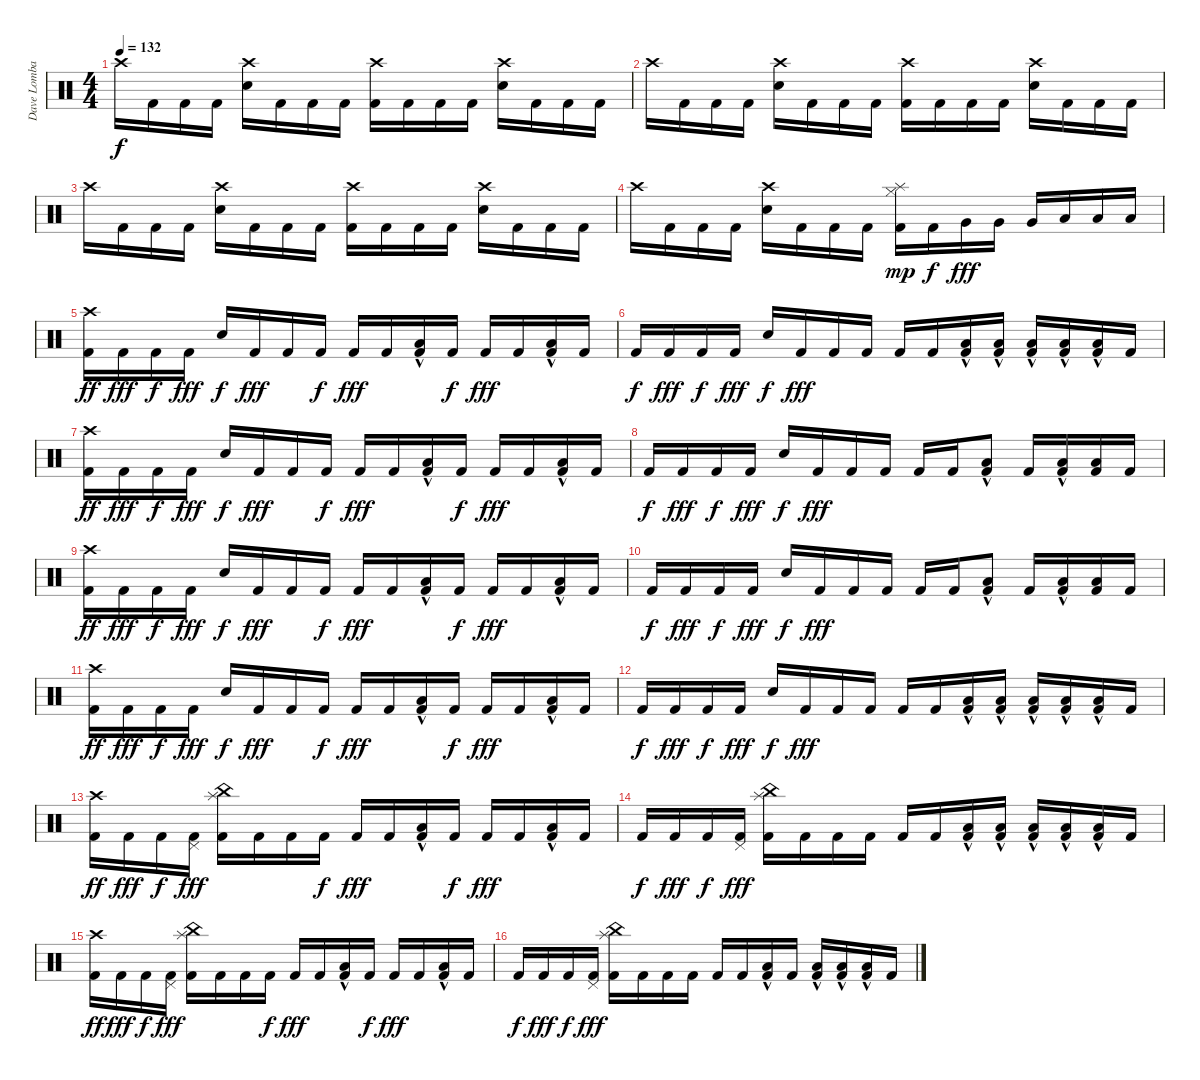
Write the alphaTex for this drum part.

\track ("Dave Lombardo" "Dave Lomba") {instrument percussion}
\staff {score}
\articulation defaults
\ts (4 4)
\tempo 132
\clef neutral
\ks c "Crash high (hit)".16{dy f} "Kick (hit) 2".16 "Kick (hit) 2".16 "Kick (hit) 2".16
("Crash high (hit)" "Snare (hit) 2").16 "Kick (hit) 2".16 "Kick (hit) 2".16 "Kick (hit) 2".16 ("Crash high (hit)" "Kick (hit) 2").16 "Kick (hit) 2".16 "Kick (hit) 2".16 "Kick (hit) 2".16 ("Crash high (hit)" "Snare (hit) 2").16 "Kick (hit) 2".16 "Kick (hit) 2".16 "Kick (hit) 2".16 |
"Crash high (hit)".16 "Kick (hit) 2".16 "Kick (hit) 2".16 "Kick (hit) 2".16 ("Crash high (hit)" "Snare (hit) 2").16 "Kick (hit) 2".16 "Kick (hit) 2".16 "Kick (hit) 2".16 ("Crash high (hit)" "Kick (hit) 2").16 "Kick (hit) 2".16 "Kick (hit) 2".16 "Kick (hit) 2".16 ("Crash high (hit)" "Snare (hit) 2").16 "Kick (hit) 2".16 "Kick (hit) 2".16 "Kick (hit) 2".16 |
"Crash high (hit)".16 "Kick (hit) 2".16 "Kick (hit) 2".16 "Kick (hit) 2".16 ("Crash high (hit)" "Snare (hit) 2").16 "Kick (hit) 2".16 "Kick (hit) 2".16 "Kick (hit) 2".16 ("Crash high (hit)" "Kick (hit) 2").16 "Kick (hit) 2".16 "Kick (hit) 2".16 "Kick (hit) 2".16 ("Crash high (hit)" "Snare (hit) 2").16 "Kick (hit) 2".16 "Kick (hit) 2".16 "Kick (hit) 2".16 |
"Crash high (hit)".16 "Kick (hit) 2".16 "Kick (hit) 2".16 "Kick (hit) 2".16 ("Crash high (hit)" "Snare (hit) 2").16 "Kick (hit) 2".16 "Kick (hit) 2".16 "Kick (hit) 2".16 ("Splash (hit)" "Hi-Hat (closed)" "Kick (hit) 2").16{dy mp} "Kick (hit) 2".16{dy f} "Very Low Tom (hit)".16{dy fff} "Very Low Tom (hit)".16 "Very Low Tom (hit)".16 "Low Floor Tom (hit)".16 "Low Floor Tom (hit)".16 "Low Floor Tom (hit)".16 |
("Crash high (hit)" "Kick (hit) 2").16{dy ff} "Kick (hit) 2".16{dy fff} "Kick (hit) 2".16{dy f} "Kick (hit) 2".16{dy fff} "Snare (hit) 2".16{dy f} "Kick (hit) 2".16{dy fff} "Kick (hit) 2".16 "Kick (hit) 2".16{dy f} "Kick (hit) 2".16{dy fff} "Kick (hit) 2".16 ("Low Floor Tom (hit)"{hac} "Kick (hit) 2").16 "Kick (hit) 2".16{dy f} "Kick (hit) 2".16{dy fff} "Kick (hit) 2".16 ("Low Floor Tom (hit)"{hac} "Kick (hit) 2").16 "Kick (hit) 2".16 |
"Kick (hit) 2".16{dy f} "Kick (hit) 2".16{dy fff} "Kick (hit) 2".16{dy f} "Kick (hit) 2".16{dy fff} "Snare (hit) 2".16{dy f} "Kick (hit) 2".16{dy fff} "Kick (hit) 2".16 "Kick (hit) 2".16 "Kick (hit) 2".16 "Kick (hit) 2".16 ("Low Floor Tom (hit)"{hac} "Kick (hit) 2").16 ("Low Floor Tom (hit)"{hac} "Kick (hit) 2").16 ("Low Floor Tom (hit)"{hac} "Kick (hit) 2").16 ("Low Floor Tom (hit)"{hac} "Kick (hit) 2").16 ("Low Floor Tom (hit)"{hac} "Kick (hit) 2").16 "Kick (hit) 2".16 |
("Crash high (hit)" "Kick (hit) 2").16{dy ff} "Kick (hit) 2".16{dy fff} "Kick (hit) 2".16{dy f} "Kick (hit) 2".16{dy fff} "Snare (hit) 2".16{dy f} "Kick (hit) 2".16{dy fff} "Kick (hit) 2".16 "Kick (hit) 2".16{dy f} "Kick (hit) 2".16{dy fff} "Kick (hit) 2".16 ("Low Floor Tom (hit)"{hac} "Kick (hit) 2").16 "Kick (hit) 2".16{dy f} "Kick (hit) 2".16{dy fff} "Kick (hit) 2".16 ("Low Floor Tom (hit)"{hac} "Kick (hit) 2").16 "Kick (hit) 2".16 |
"Kick (hit) 2".16{dy f} "Kick (hit) 2".16{dy fff} "Kick (hit) 2".16{dy f} "Kick (hit) 2".16{dy fff} "Snare (hit) 2".16{dy f} "Kick (hit) 2".16{dy fff} "Kick (hit) 2".16 "Kick (hit) 2".16 "Kick (hit) 2".16 "Kick (hit) 2".16 ("Low Floor Tom (hit)"{hac} "Kick (hit) 2").8 "Kick (hit) 2".16 ("Low Floor Tom (hit)"{hac} "Kick (hit) 2").16 ("Low Floor Tom (hit)" "Kick (hit) 2").16 "Kick (hit) 2".16 |
("Crash high (hit)" "Kick (hit) 2").16{dy ff} "Kick (hit) 2".16{dy fff} "Kick (hit) 2".16{dy f} "Kick (hit) 2".16{dy fff} "Snare (hit) 2".16{dy f} "Kick (hit) 2".16{dy fff} "Kick (hit) 2".16 "Kick (hit) 2".16{dy f} "Kick (hit) 2".16{dy fff} "Kick (hit) 2".16 ("Low Floor Tom (hit)"{hac} "Kick (hit) 2").16 "Kick (hit) 2".16{dy f} "Kick (hit) 2".16{dy fff} "Kick (hit) 2".16 ("Low Floor Tom (hit)"{hac} "Kick (hit) 2").16 "Kick (hit) 2".16 |
"Kick (hit) 2".16{dy f} "Kick (hit) 2".16{dy fff} "Kick (hit) 2".16{dy f} "Kick (hit) 2".16{dy fff} "Snare (hit) 2".16{dy f} "Kick (hit) 2".16{dy fff} "Kick (hit) 2".16 "Kick (hit) 2".16 "Kick (hit) 2".16 "Kick (hit) 2".16 ("Low Floor Tom (hit)"{hac} "Kick (hit) 2").8 "Kick (hit) 2".16 ("Low Floor Tom (hit)"{hac} "Kick (hit) 2").16 ("Low Floor Tom (hit)" "Kick (hit) 2").16 "Kick (hit) 2".16 |
("Crash high (hit)" "Kick (hit) 2").16{dy ff} "Kick (hit) 2".16{dy fff} "Kick (hit) 2".16{dy f} "Kick (hit) 2".16{dy fff} "Snare (hit) 2".16{dy f} "Kick (hit) 2".16{dy fff} "Kick (hit) 2".16 "Kick (hit) 2".16{dy f} "Kick (hit) 2".16{dy fff} "Kick (hit) 2".16 ("Low Floor Tom (hit)"{hac} "Kick (hit) 2").16 "Kick (hit) 2".16{dy f} "Kick (hit) 2".16{dy fff} "Kick (hit) 2".16 ("Low Floor Tom (hit)"{hac} "Kick (hit) 2").16 "Kick (hit) 2".16 |
"Kick (hit) 2".16{dy f} "Kick (hit) 2".16{dy fff} "Kick (hit) 2".16{dy f} "Kick (hit) 2".16{dy fff} "Snare (hit) 2".16{dy f} "Kick (hit) 2".16{dy fff} "Kick (hit) 2".16 "Kick (hit) 2".16 "Kick (hit) 2".16 "Kick (hit) 2".16 ("Low Floor Tom (hit)"{hac} "Kick (hit) 2").16 ("Low Floor Tom (hit)"{hac} "Kick (hit) 2").16 ("Low Floor Tom (hit)"{hac} "Kick (hit) 2").16 ("Low Floor Tom (hit)"{hac} "Kick (hit) 2").16 ("Low Floor Tom (hit)"{hac} "Kick (hit) 2").16 "Kick (hit) 2".16 |
("Crash high (hit)" "Kick (hit) 2").16{dy ff} "Kick (hit) 2".16{dy fff} "Kick (hit) 2".16{dy f} ("Pedal Hi-Hat (hit)" "Kick (hit) 2").16{dy fff} ("Splash (hit)" "China (hit)" "Kick (hit) 2").16 "Kick (hit) 2".16 "Kick (hit) 2".16 "Kick (hit) 2".16{dy f} "Kick (hit) 2".16{dy fff} "Kick (hit) 2".16 ("Low Floor Tom (hit)"{hac} "Kick (hit) 2").16 "Kick (hit) 2".16{dy f} "Kick (hit) 2".16{dy fff} "Kick (hit) 2".16 ("Low Floor Tom (hit)"{hac} "Kick (hit) 2").16 "Kick (hit) 2".16 |
"Kick (hit) 2".16{dy f} "Kick (hit) 2".16{dy fff} "Kick (hit) 2".16{dy f} ("Pedal Hi-Hat (hit)" "Kick (hit) 2").16{dy fff} ("Splash (hit)" "China (hit)" "Kick (hit) 2").16 "Kick (hit) 2".16 "Kick (hit) 2".16 "Kick (hit) 2".16 "Kick (hit) 2".16 "Kick (hit) 2".16 ("Low Floor Tom (hit)"{hac} "Kick (hit) 2").16 ("Low Floor Tom (hit)"{hac} "Kick (hit) 2").16 ("Low Floor Tom (hit)"{hac} "Kick (hit) 2").16 ("Low Floor Tom (hit)"{hac} "Kick (hit) 2").16 ("Low Floor Tom (hit)"{hac} "Kick (hit) 2").16 "Kick (hit) 2".16 |
("Crash high (hit)" "Kick (hit) 2").16{dy ff} "Kick (hit) 2".16{dy fff} "Kick (hit) 2".16{dy f} ("Pedal Hi-Hat (hit)" "Kick (hit) 2").16{dy fff} ("Splash (hit)" "China (hit)" "Kick (hit) 2").16 "Kick (hit) 2".16 "Kick (hit) 2".16 "Kick (hit) 2".16{dy f} "Kick (hit) 2".16{dy fff} "Kick (hit) 2".16 ("Low Floor Tom (hit)"{hac} "Kick (hit) 2").16 "Kick (hit) 2".16{dy f} "Kick (hit) 2".16{dy fff} "Kick (hit) 2".16 ("Low Floor Tom (hit)"{hac} "Kick (hit) 2").16 "Kick (hit) 2".16 |
"Kick (hit) 2".16{dy f} "Kick (hit) 2".16{dy fff} "Kick (hit) 2".16{dy f} ("Pedal Hi-Hat (hit)" "Kick (hit) 2").16{dy fff} ("Splash (hit)" "China (hit)" "Kick (hit) 2").16 "Kick (hit) 2".16 "Kick (hit) 2".16 "Kick (hit) 2".16 "Kick (hit) 2".16 "Kick (hit) 2".16 ("Low Floor Tom (hit)"{hac} "Kick (hit) 2").16 "Kick (hit) 2".16 ("Low Floor Tom (hit)"{hac} "Kick (hit) 2").16 ("Low Floor Tom (hit)"{hac} "Kick (hit) 2").16 ("Low Floor Tom (hit)"{hac} "Kick (hit) 2").16 "Kick (hit) 2".16
